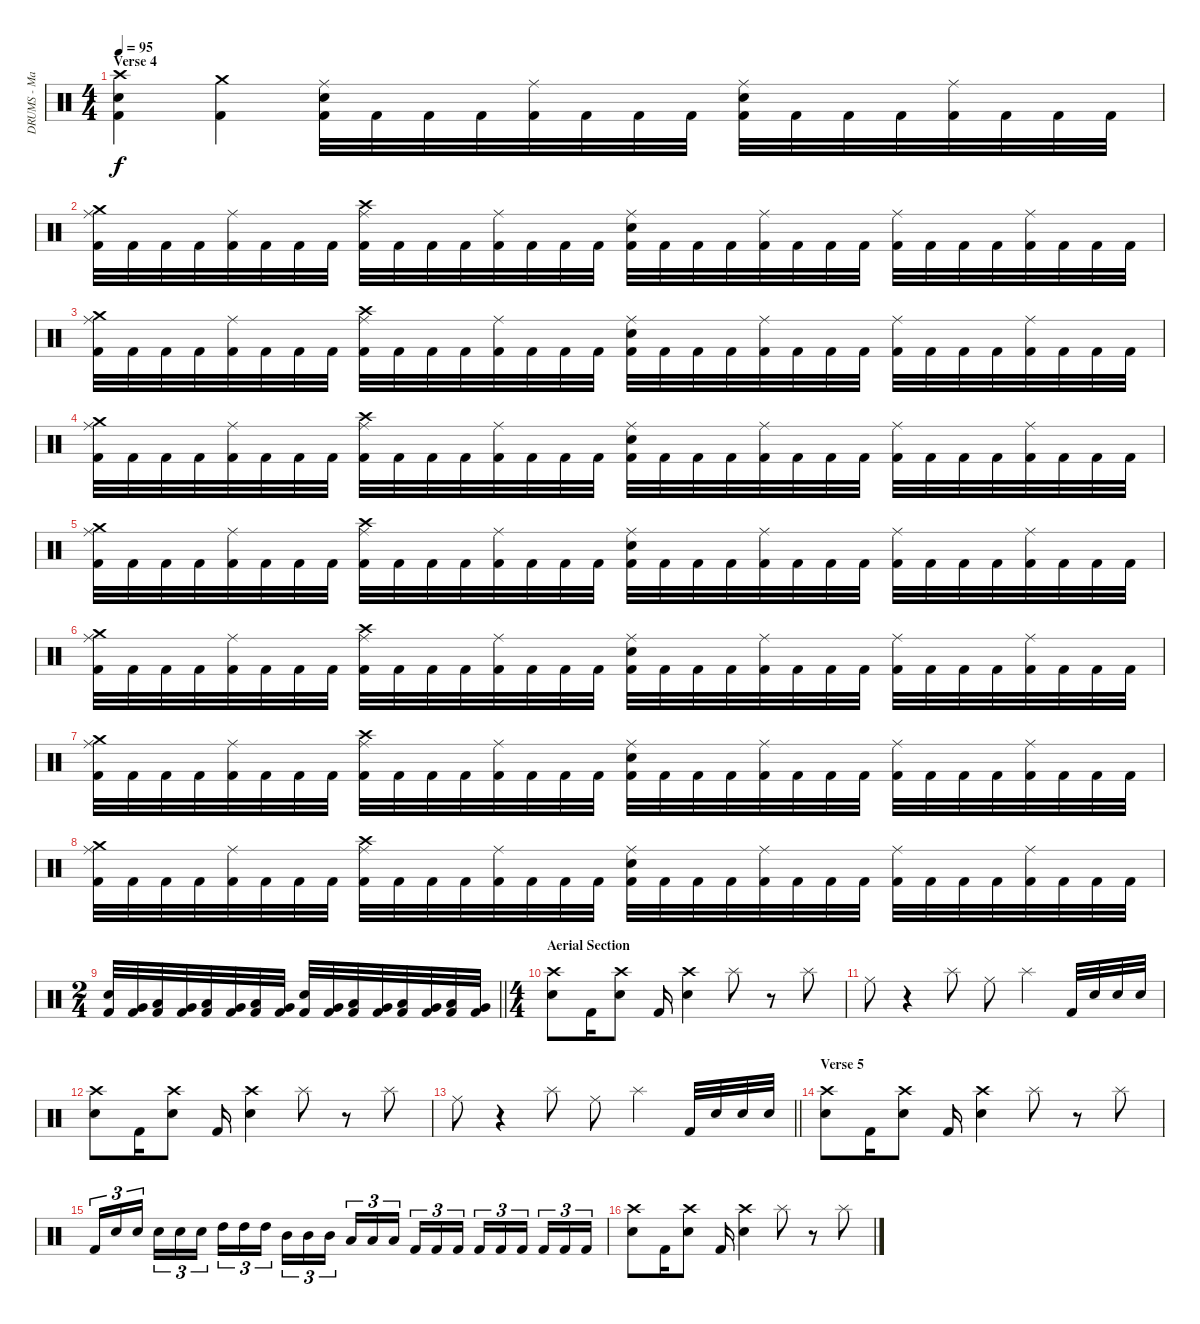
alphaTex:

\track ("DRUMS - Mario Duplantier" "DRUMS - Ma") {instrument percussion}
\staff {score}
\articulation defaults
\ts (4 4)
\section ("" "Verse 4")
\tempo 95
\clef neutral
\ks c
("Crash high (hit)" "Electric Snare (hit)" "Kick (hit) 2").4{dy f} ("Crash medium (hit)" "Kick (hit) 2").4 ("Ride (middle)" "Electric Snare (hit)" "Kick (hit) 2").32 "Kick (hit) 2".32 "Kick (hit) 2".32 "Kick (hit) 2".32 ("Ride (middle)" "Kick (hit) 2").32 "Kick (hit) 2".32 "Kick (hit) 2".32 "Kick (hit) 2".32 ("Ride (middle)" "Electric Snare (hit)" "Kick (hit) 2").32 "Kick (hit) 2".32 "Kick (hit) 2".32 "Kick (hit) 2".32 ("Ride (middle)" "Kick (hit) 2").32 "Kick (hit) 2".32 "Kick (hit) 2".32 "Kick (hit) 2".32 |
("Ride (middle)" "Crash medium (hit)" "Kick (hit) 2").32 "Kick (hit) 2".32 "Kick (hit) 2".32 "Kick (hit) 2".32 ("Ride (middle)" "Kick (hit) 2").32 "Kick (hit) 2".32 "Kick (hit) 2".32 "Kick (hit) 2".32 ("Ride (middle)" "Crash high (hit)" "Kick (hit) 2").32 "Kick (hit) 2".32 "Kick (hit) 2".32 "Kick (hit) 2".32 ("Ride (middle)" "Kick (hit) 2").32 "Kick (hit) 2".32 "Kick (hit) 2".32 "Kick (hit) 2".32 ("Ride (middle)" "Electric Snare (hit)" "Kick (hit) 2").32 "Kick (hit) 2".32 "Kick (hit) 2".32 "Kick (hit) 2".32 ("Ride (middle)" "Kick (hit) 2").32 "Kick (hit) 2".32 "Kick (hit) 2".32 "Kick (hit) 2".32 ("Ride (middle)" "Kick (hit) 2").32 "Kick (hit) 2".32 "Kick (hit) 2".32 "Kick (hit) 2".32 ("Ride (middle)" "Kick (hit) 2").32 "Kick (hit) 2".32 "Kick (hit) 2".32 "Kick (hit) 2".32 |
("Ride (middle)" "Crash medium (hit)" "Kick (hit) 2").32 "Kick (hit) 2".32 "Kick (hit) 2".32 "Kick (hit) 2".32 ("Ride (middle)" "Kick (hit) 2").32 "Kick (hit) 2".32 "Kick (hit) 2".32 "Kick (hit) 2".32 ("Ride (middle)" "Crash high (hit)" "Kick (hit) 2").32 "Kick (hit) 2".32 "Kick (hit) 2".32 "Kick (hit) 2".32 ("Ride (middle)" "Kick (hit) 2").32 "Kick (hit) 2".32 "Kick (hit) 2".32 "Kick (hit) 2".32 ("Ride (middle)" "Electric Snare (hit)" "Kick (hit) 2").32 "Kick (hit) 2".32 "Kick (hit) 2".32 "Kick (hit) 2".32 ("Ride (middle)" "Kick (hit) 2").32 "Kick (hit) 2".32 "Kick (hit) 2".32 "Kick (hit) 2".32 ("Ride (middle)" "Kick (hit) 2").32 "Kick (hit) 2".32 "Kick (hit) 2".32 "Kick (hit) 2".32 ("Ride (middle)" "Kick (hit) 2").32 "Kick (hit) 2".32 "Kick (hit) 2".32 "Kick (hit) 2".32 |
("Ride (middle)" "Crash medium (hit)" "Kick (hit) 2").32 "Kick (hit) 2".32 "Kick (hit) 2".32 "Kick (hit) 2".32 ("Ride (middle)" "Kick (hit) 2").32 "Kick (hit) 2".32 "Kick (hit) 2".32 "Kick (hit) 2".32 ("Ride (middle)" "Crash high (hit)" "Kick (hit) 2").32 "Kick (hit) 2".32 "Kick (hit) 2".32 "Kick (hit) 2".32 ("Ride (middle)" "Kick (hit) 2").32 "Kick (hit) 2".32 "Kick (hit) 2".32 "Kick (hit) 2".32 ("Ride (middle)" "Electric Snare (hit)" "Kick (hit) 2").32 "Kick (hit) 2".32 "Kick (hit) 2".32 "Kick (hit) 2".32 ("Ride (middle)" "Kick (hit) 2").32 "Kick (hit) 2".32 "Kick (hit) 2".32 "Kick (hit) 2".32 ("Ride (middle)" "Kick (hit) 2").32 "Kick (hit) 2".32 "Kick (hit) 2".32 "Kick (hit) 2".32 ("Ride (middle)" "Kick (hit) 2").32 "Kick (hit) 2".32 "Kick (hit) 2".32 "Kick (hit) 2".32 |
("Ride (middle)" "Crash medium (hit)" "Kick (hit) 2").32 "Kick (hit) 2".32 "Kick (hit) 2".32 "Kick (hit) 2".32 ("Ride (middle)" "Kick (hit) 2").32 "Kick (hit) 2".32 "Kick (hit) 2".32 "Kick (hit) 2".32 ("Ride (middle)" "Crash high (hit)" "Kick (hit) 2").32 "Kick (hit) 2".32 "Kick (hit) 2".32 "Kick (hit) 2".32 ("Ride (middle)" "Kick (hit) 2").32 "Kick (hit) 2".32 "Kick (hit) 2".32 "Kick (hit) 2".32 ("Ride (middle)" "Electric Snare (hit)" "Kick (hit) 2").32 "Kick (hit) 2".32 "Kick (hit) 2".32 "Kick (hit) 2".32 ("Ride (middle)" "Kick (hit) 2").32 "Kick (hit) 2".32 "Kick (hit) 2".32 "Kick (hit) 2".32 ("Ride (middle)" "Kick (hit) 2").32 "Kick (hit) 2".32 "Kick (hit) 2".32 "Kick (hit) 2".32 ("Ride (middle)" "Kick (hit) 2").32 "Kick (hit) 2".32 "Kick (hit) 2".32 "Kick (hit) 2".32 |
("Ride (middle)" "Crash medium (hit)" "Kick (hit) 2").32 "Kick (hit) 2".32 "Kick (hit) 2".32 "Kick (hit) 2".32 ("Ride (middle)" "Kick (hit) 2").32 "Kick (hit) 2".32 "Kick (hit) 2".32 "Kick (hit) 2".32 ("Ride (middle)" "Crash high (hit)" "Kick (hit) 2").32 "Kick (hit) 2".32 "Kick (hit) 2".32 "Kick (hit) 2".32 ("Ride (middle)" "Kick (hit) 2").32 "Kick (hit) 2".32 "Kick (hit) 2".32 "Kick (hit) 2".32 ("Ride (middle)" "Electric Snare (hit)" "Kick (hit) 2").32 "Kick (hit) 2".32 "Kick (hit) 2".32 "Kick (hit) 2".32 ("Ride (middle)" "Kick (hit) 2").32 "Kick (hit) 2".32 "Kick (hit) 2".32 "Kick (hit) 2".32 ("Ride (middle)" "Kick (hit) 2").32 "Kick (hit) 2".32 "Kick (hit) 2".32 "Kick (hit) 2".32 ("Ride (middle)" "Kick (hit) 2").32 "Kick (hit) 2".32 "Kick (hit) 2".32 "Kick (hit) 2".32 |
("Ride (middle)" "Crash medium (hit)" "Kick (hit) 2").32 "Kick (hit) 2".32 "Kick (hit) 2".32 "Kick (hit) 2".32 ("Ride (middle)" "Kick (hit) 2").32 "Kick (hit) 2".32 "Kick (hit) 2".32 "Kick (hit) 2".32 ("Ride (middle)" "Crash high (hit)" "Kick (hit) 2").32 "Kick (hit) 2".32 "Kick (hit) 2".32 "Kick (hit) 2".32 ("Ride (middle)" "Kick (hit) 2").32 "Kick (hit) 2".32 "Kick (hit) 2".32 "Kick (hit) 2".32 ("Ride (middle)" "Electric Snare (hit)" "Kick (hit) 2").32 "Kick (hit) 2".32 "Kick (hit) 2".32 "Kick (hit) 2".32 ("Ride (middle)" "Kick (hit) 2").32 "Kick (hit) 2".32 "Kick (hit) 2".32 "Kick (hit) 2".32 ("Ride (middle)" "Kick (hit) 2").32 "Kick (hit) 2".32 "Kick (hit) 2".32 "Kick (hit) 2".32 ("Ride (middle)" "Kick (hit) 2").32 "Kick (hit) 2".32 "Kick (hit) 2".32 "Kick (hit) 2".32 |
("Ride (middle)" "Crash medium (hit)" "Kick (hit) 2").32 "Kick (hit) 2".32 "Kick (hit) 2".32 "Kick (hit) 2".32 ("Ride (middle)" "Kick (hit) 2").32 "Kick (hit) 2".32 "Kick (hit) 2".32 "Kick (hit) 2".32 ("Ride (middle)" "Crash high (hit)" "Kick (hit) 2").32 "Kick (hit) 2".32 "Kick (hit) 2".32 "Kick (hit) 2".32 ("Ride (middle)" "Kick (hit) 2").32 "Kick (hit) 2".32 "Kick (hit) 2".32 "Kick (hit) 2".32 ("Ride (middle)" "Electric Snare (hit)" "Kick (hit) 2").32 "Kick (hit) 2".32 "Kick (hit) 2".32 "Kick (hit) 2".32 ("Ride (middle)" "Kick (hit) 2").32 "Kick (hit) 2".32 "Kick (hit) 2".32 "Kick (hit) 2".32 ("Ride (middle)" "Kick (hit) 2").32 "Kick (hit) 2".32 "Kick (hit) 2".32 "Kick (hit) 2".32 ("Ride (middle)" "Kick (hit) 2").32 "Kick (hit) 2".32 "Kick (hit) 2".32 "Kick (hit) 2".32 |
\ts (2 4)
\barLineRight lightlight
("Electric Snare (hit)" "Kick (hit) 2").32 ("Very Low Tom (hit)" "Kick (hit) 2").32 ("Low Tom (hit)" "Kick (hit) 2").32 ("Very Low Tom (hit)" "Kick (hit) 2").32 ("Low Tom (hit)" "Kick (hit) 2").32 ("Very Low Tom (hit)" "Kick (hit) 2").32 ("Low Tom (hit)" "Kick (hit) 2").32 ("Very Low Tom (hit)" "Kick (hit) 2").32 ("Electric Snare (hit)" "Kick (hit) 2").32 ("Very Low Tom (hit)" "Kick (hit) 2").32 ("Low Tom (hit)" "Kick (hit) 2").32 ("Very Low Tom (hit)" "Kick (hit) 2").32 ("Low Tom (hit)" "Kick (hit) 2").32 ("Very Low Tom (hit)" "Kick (hit) 2").32 ("Low Tom (hit)" "Kick (hit) 2").32 ("Very Low Tom (hit)" "Kick (hit) 2").32 |
\ts (4 4)
\section ("" "Aerial Section")
("Crash high (hit)" "Electric Snare (hit)").8 "Kick (hit) 2".16 ("Crash high (hit)" "Electric Snare (hit)").8 "Kick (hit) 2".16 ("Crash high (hit)" "Electric Snare (hit)").4 "Splash (hit)".8 r.8 "Splash (hit)".8 |
"Ride (middle)".8 r.4 "Splash (hit)".8 "Ride (middle)".8 "Splash (hit)".4 "Kick (hit) 2".32 "Electric Snare (hit)".32 "Electric Snare (hit)".32 "Electric Snare (hit)".32 |
("Crash high (hit)" "Electric Snare (hit)").8 "Kick (hit) 2".16 ("Crash high (hit)" "Electric Snare (hit)").8 "Kick (hit) 2".16 ("Crash high (hit)" "Electric Snare (hit)").4 "Splash (hit)".8 r.8 "Splash (hit)".8 |
\barLineRight lightlight "Ride (middle)".8
r.4 "Splash (hit)".8 "Ride (middle)".8 "Splash (hit)".4 "Kick (hit) 2".32 "Electric Snare (hit)".32 "Electric Snare (hit)".32 "Electric Snare (hit)".32 |
\section ("" "Verse 5")
("Crash high (hit)" "Electric Snare (hit)").8 "Kick (hit) 2".16 ("Crash high (hit)" "Electric Snare (hit)").8 "Kick (hit) 2".16 ("Crash high (hit)" "Electric Snare (hit)").4 "Splash (hit)".8 r.8 "Splash (hit)".8 |
"Kick (hit) 2".16{tu (3 2)} "Electric Snare (hit)".16{tu (3 2)} "Electric Snare (hit)".16{tu (3 2) beam splitsecondary} "Electric Snare (hit)".16{tu (3 2)} "Electric Snare (hit)".16{tu (3 2)} "Electric Snare (hit)".16{tu (3 2)} "High Tom (hit)".16{tu (3 2)} "High Tom (hit)".16{tu (3 2)} "High Tom (hit)".16{tu (3 2) beam splitsecondary} "Mid Tom (hit)".16{tu (3 2)} "Mid Tom (hit)".16{tu (3 2)} "Mid Tom (hit)".16{tu (3 2)} "Low Tom (hit)".16{tu (3 2)} "Low Tom (hit)".16{tu (3 2)} "Low Tom (hit)".16{tu (3 2) beam splitsecondary} "Kick (hit) 2".16{tu (3 2)} "Kick (hit) 2".16{tu (3 2)} "Kick (hit) 2".16{tu (3 2)} "Kick (hit) 2".16{tu (3 2)} "Kick (hit) 2".16{tu (3 2)} "Kick (hit) 2".16{tu (3 2) beam splitsecondary} "Kick (hit) 2".16{tu (3 2)} "Kick (hit) 2".16{tu (3 2)} "Kick (hit) 2".16{tu (3 2)} |
("Crash high (hit)" "Electric Snare (hit)").8 "Kick (hit) 2".16 ("Crash high (hit)" "Electric Snare (hit)").8 "Kick (hit) 2".16 ("Crash high (hit)" "Electric Snare (hit)").4 "Splash (hit)".8 r.8 "Splash (hit)".8
